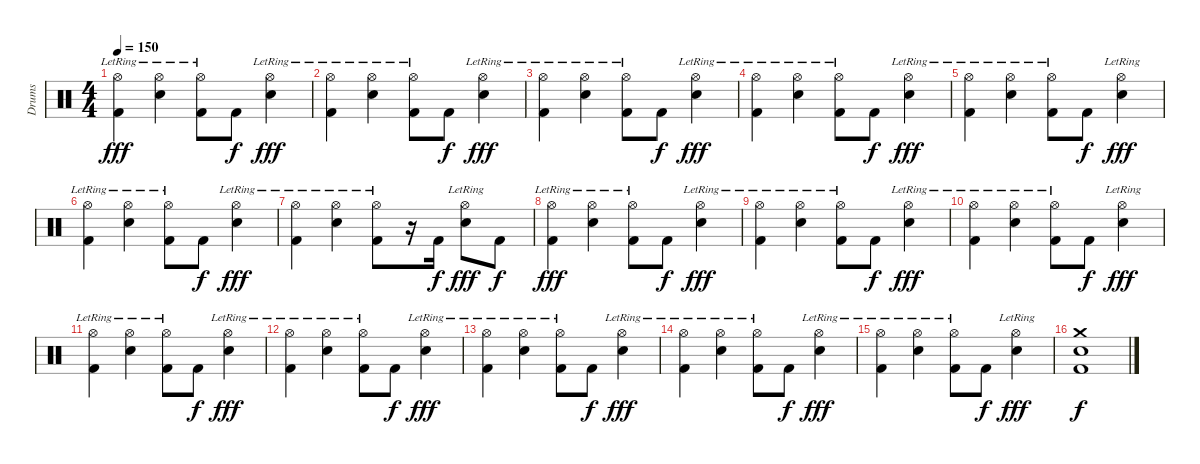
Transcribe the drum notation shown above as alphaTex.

\track ("Drums" "Drums") {instrument percussion}
\staff {score}
\articulation defaults
\ts (4 4)
\tempo 150
\clef neutral
\ks c
("Hi-Hat (open)"{lr} "Kick (hit) 2").4{dy fff} ("Hi-Hat (open)"{lr} "Snare (hit) 2").4 ("Hi-Hat (open)"{lr} "Kick (hit) 2").8 "Kick (hit) 2".8{dy f} ("Hi-Hat (open)"{lr} "Snare (hit) 2").4{dy fff} |
("Hi-Hat (open)"{lr} "Kick (hit) 2").4 ("Hi-Hat (open)"{lr} "Snare (hit) 2").4 ("Hi-Hat (open)"{lr} "Kick (hit) 2").8 "Kick (hit) 2".8{dy f} ("Hi-Hat (open)"{lr} "Snare (hit) 2").4{dy fff} |
("Hi-Hat (open)"{lr} "Kick (hit) 2").4 ("Hi-Hat (open)"{lr} "Snare (hit) 2").4 ("Hi-Hat (open)"{lr} "Kick (hit) 2").8 "Kick (hit) 2".8{dy f} ("Hi-Hat (open)"{lr} "Snare (hit) 2").4{dy fff} |
("Hi-Hat (open)"{lr} "Kick (hit) 2").4 ("Hi-Hat (open)"{lr} "Snare (hit) 2").4 ("Hi-Hat (open)"{lr} "Kick (hit) 2").8 "Kick (hit) 2".8{dy f} ("Hi-Hat (open)"{lr} "Snare (hit) 2").4{dy fff} |
("Hi-Hat (open)"{lr} "Kick (hit) 2").4 ("Hi-Hat (open)"{lr} "Snare (hit) 2").4 ("Hi-Hat (open)"{lr} "Kick (hit) 2").8 "Kick (hit) 2".8{dy f} ("Hi-Hat (open)"{lr} "Snare (hit) 2").4{dy fff} |
("Hi-Hat (open)"{lr} "Kick (hit) 2").4 ("Hi-Hat (open)"{lr} "Snare (hit) 2").4 ("Hi-Hat (open)"{lr} "Kick (hit) 2").8 "Kick (hit) 2".8{dy f} ("Hi-Hat (open)"{lr} "Snare (hit) 2").4{dy fff} |
("Hi-Hat (open)"{lr} "Kick (hit) 2").4 ("Hi-Hat (open)"{lr} "Snare (hit) 2").4 ("Hi-Hat (open)"{lr} "Kick (hit) 2").8 r.16 "Kick (hit) 2".16{dy f} ("Hi-Hat (open)"{lr} "Snare (hit) 2").8{dy fff} "Kick (hit) 2".8{dy f} |
("Hi-Hat (open)"{lr} "Kick (hit) 2").4{dy fff} ("Hi-Hat (open)"{lr} "Snare (hit) 2").4 ("Hi-Hat (open)"{lr} "Kick (hit) 2").8 "Kick (hit) 2".8{dy f} ("Hi-Hat (open)"{lr} "Snare (hit) 2").4{dy fff} |
("Hi-Hat (open)"{lr} "Kick (hit) 2").4 ("Hi-Hat (open)"{lr} "Snare (hit) 2").4 ("Hi-Hat (open)"{lr} "Kick (hit) 2").8 "Kick (hit) 2".8{dy f} ("Hi-Hat (open)"{lr} "Snare (hit) 2").4{dy fff} |
("Hi-Hat (open)"{lr} "Kick (hit) 2").4 ("Hi-Hat (open)"{lr} "Snare (hit) 2").4 ("Hi-Hat (open)"{lr} "Kick (hit) 2").8 "Kick (hit) 2".8{dy f} ("Hi-Hat (open)"{lr} "Snare (hit) 2").4{dy fff} |
("Hi-Hat (open)"{lr} "Kick (hit) 2").4 ("Hi-Hat (open)"{lr} "Snare (hit) 2").4 ("Hi-Hat (open)"{lr} "Kick (hit) 2").8 "Kick (hit) 2".8{dy f} ("Hi-Hat (open)"{lr} "Snare (hit) 2").4{dy fff} |
("Hi-Hat (open)"{lr} "Kick (hit) 2").4 ("Hi-Hat (open)"{lr} "Snare (hit) 2").4 ("Hi-Hat (open)"{lr} "Kick (hit) 2").8 "Kick (hit) 2".8{dy f} ("Hi-Hat (open)"{lr} "Snare (hit) 2").4{dy fff} |
("Hi-Hat (open)"{lr} "Kick (hit) 2").4 ("Hi-Hat (open)"{lr} "Snare (hit) 2").4 ("Hi-Hat (open)"{lr} "Kick (hit) 2").8 "Kick (hit) 2".8{dy f} ("Hi-Hat (open)"{lr} "Snare (hit) 2").4{dy fff} |
("Hi-Hat (open)"{lr} "Kick (hit) 2").4 ("Hi-Hat (open)"{lr} "Snare (hit) 2").4 ("Hi-Hat (open)"{lr} "Kick (hit) 2").8 "Kick (hit) 2".8{dy f} ("Hi-Hat (open)"{lr} "Snare (hit) 2").4{dy fff} |
("Hi-Hat (open)"{lr} "Kick (hit) 2").4 ("Hi-Hat (open)"{lr} "Snare (hit) 2").4 ("Hi-Hat (open)"{lr} "Kick (hit) 2").8 "Kick (hit) 2".8{dy f} ("Hi-Hat (open)"{lr} "Snare (hit) 2").4{dy fff} |
("Kick (hit) 2" "Snare (hit) 2" "Crash medium (hit)").1{dy f}
